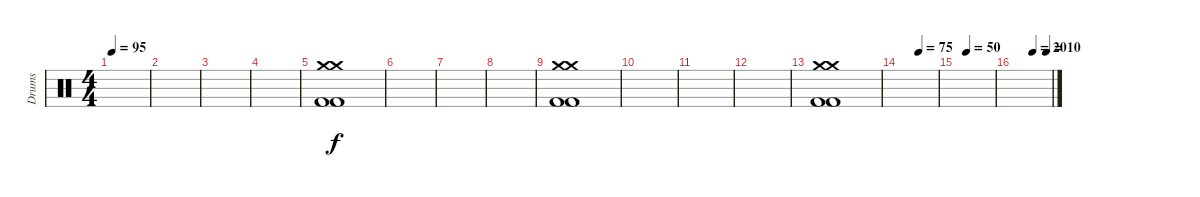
\track ("Drums" "Drums") {instrument percussion}
\staff {score}
\articulation defaults
\ts (4 4)
\tempo 95
\clef neutral
\ks c
|
|
|
|
("Kick (hit) 2" "Crash medium (hit)" "Kick (hit) 2" "Crash medium (hit)").1 |
|
|
|
("Kick (hit) 2" "Crash medium (hit)" "Kick (hit) 2" "Crash medium (hit)").1 |
|
|
|
("Kick (hit) 2" "Crash medium (hit)" "Kick (hit) 2" "Crash medium (hit)").1 |
\tempo (75 0.5)
|
\tempo (50 0.25)
|
\tempo (20 0.5)
\tempo (10 0.875)
